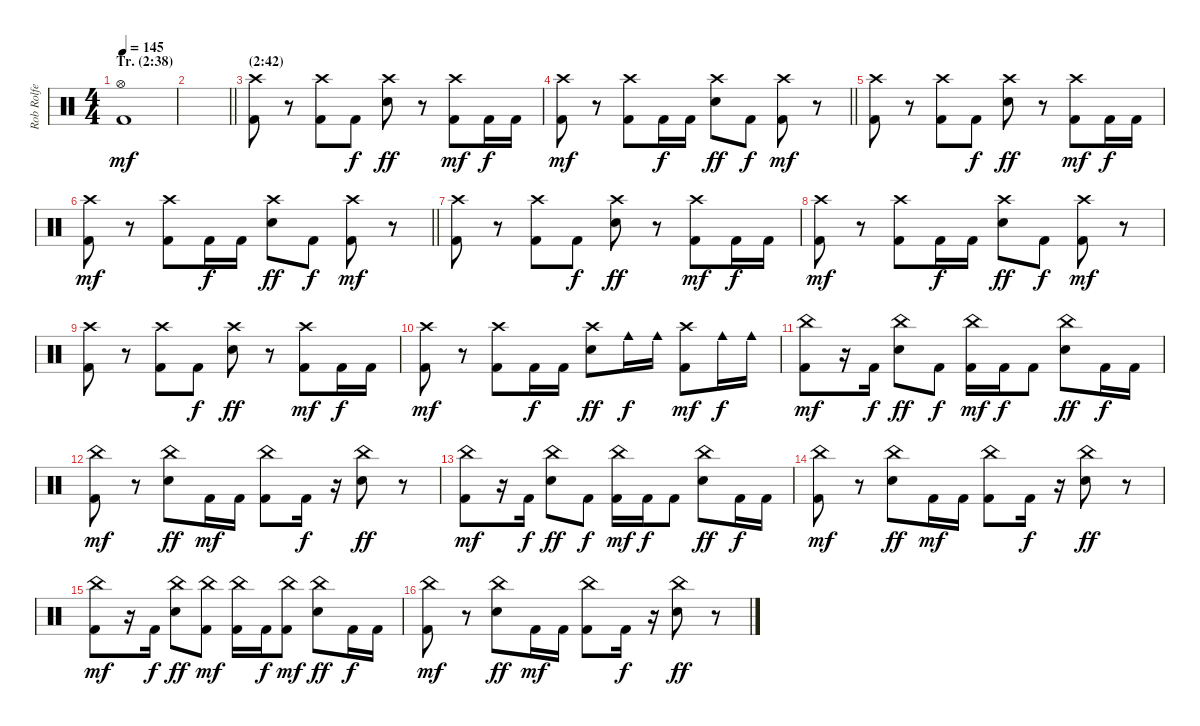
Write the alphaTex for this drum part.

\track ("Rob Rolfe [Drums]" "Rob Rolfe ") {instrument percussion}
\staff {score}
\articulation defaults
\ts (4 4)
\section ("" "Tr. (2:38)")
\tempo 145
\clef neutral
\ks c
("Hi-Hat (open)" "Kick (hit) 2").1{dy mf} |
\barLineRight lightlight
|
\section ("" "(2:42)")
("Crash high (hit)" "Kick (hit) 2").8 r.8 ("Crash high (hit)" "Kick (hit) 2").8 "Kick (hit) 2".8{dy f} ("Crash high (hit)" "Electric Snare (hit)").8{dy ff} r.8 ("Crash high (hit)" "Kick (hit) 2").8{dy mf} "Kick (hit) 2".16{dy f} "Kick (hit) 2".16 |
\barLineRight lightlight
("Crash high (hit)" "Kick (hit) 2").8{dy mf} r.8 ("Crash high (hit)" "Kick (hit) 2").8 "Kick (hit) 2".16{dy f} "Kick (hit) 2".16 ("Crash high (hit)" "Electric Snare (hit)").8{dy ff} "Kick (hit) 2".8{dy f} ("Crash high (hit)" "Kick (hit) 2").8{dy mf} r.8 |
("Crash high (hit)" "Kick (hit) 2").8 r.8 ("Crash high (hit)" "Kick (hit) 2").8 "Kick (hit) 2".8{dy f} ("Crash high (hit)" "Electric Snare (hit)").8{dy ff} r.8 ("Crash high (hit)" "Kick (hit) 2").8{dy mf} "Kick (hit) 2".16{dy f} "Kick (hit) 2".16 |
\barLineRight lightlight
("Crash high (hit)" "Kick (hit) 2").8{dy mf} r.8 ("Crash high (hit)" "Kick (hit) 2").8 "Kick (hit) 2".16{dy f} "Kick (hit) 2".16 ("Crash high (hit)" "Electric Snare (hit)").8{dy ff} "Kick (hit) 2".8{dy f} ("Crash high (hit)" "Kick (hit) 2").8{dy mf} r.8 |
("Crash high (hit)" "Kick (hit) 2").8 r.8 ("Crash high (hit)" "Kick (hit) 2").8 "Kick (hit) 2".8{dy f} ("Crash high (hit)" "Electric Snare (hit)").8{dy ff} r.8 ("Crash high (hit)" "Kick (hit) 2").8{dy mf} "Kick (hit) 2".16{dy f} "Kick (hit) 2".16 |
("Crash high (hit)" "Kick (hit) 2").8{dy mf} r.8 ("Crash high (hit)" "Kick (hit) 2").8 "Kick (hit) 2".16{dy f} "Kick (hit) 2".16 ("Crash high (hit)" "Electric Snare (hit)").8{dy ff} "Kick (hit) 2".8{dy f} ("Crash high (hit)" "Kick (hit) 2").8{dy mf} r.8 |
("Crash high (hit)" "Kick (hit) 2").8 r.8 ("Crash high (hit)" "Kick (hit) 2").8 "Kick (hit) 2".8{dy f} ("Crash high (hit)" "Electric Snare (hit)").8{dy ff} r.8 ("Crash high (hit)" "Kick (hit) 2").8{dy mf} "Kick (hit) 2".16{dy f} "Kick (hit) 2".16 |
("Crash high (hit)" "Kick (hit) 2").8{dy mf} r.8 ("Crash high (hit)" "Kick (hit) 2").8 "Kick (hit) 2".16{dy f} "Kick (hit) 2".16 ("Crash high (hit)" "Electric Snare (hit)").8{dy ff} "Cowbell medium (hit)".16{dy f} "Cowbell medium (hit)".16 ("Crash high (hit)" "Kick (hit) 2").8{dy mf} "Cowbell medium (hit)".16{dy f} "Cowbell medium (hit)".16 |
("China (hit)" "Kick (hit) 2").8{dy mf} r.16 "Kick (hit) 2".16{dy f} ("China (hit)" "Electric Snare (hit)").8{dy ff} "Kick (hit) 2".8{dy f} ("China (hit)" "Kick (hit) 2").16{dy mf} "Kick (hit) 2".16{dy f} "Kick (hit) 2".8 ("China (hit)" "Electric Snare (hit)").8{dy ff} "Kick (hit) 2".16{dy f} "Kick (hit) 2".16 |
("China (hit)" "Kick (hit) 2").8{dy mf} r.8 ("China (hit)" "Electric Snare (hit)").8{dy ff} "Kick (hit) 2".16{dy mf} "Kick (hit) 2".16 ("China (hit)" "Kick (hit) 2").8 "Kick (hit) 2".16{dy f} r.16 ("China (hit)" "Electric Snare (hit)").8{dy ff} r.8 |
("China (hit)" "Kick (hit) 2").8{dy mf} r.16 "Kick (hit) 2".16{dy f} ("China (hit)" "Electric Snare (hit)").8{dy ff} "Kick (hit) 2".8{dy f} ("China (hit)" "Kick (hit) 2").16{dy mf} "Kick (hit) 2".16{dy f} "Kick (hit) 2".8 ("China (hit)" "Electric Snare (hit)").8{dy ff} "Kick (hit) 2".16{dy f} "Kick (hit) 2".16 |
("China (hit)" "Kick (hit) 2").8{dy mf} r.8 ("China (hit)" "Electric Snare (hit)").8{dy ff} "Kick (hit) 2".16{dy mf} "Kick (hit) 2".16 ("China (hit)" "Kick (hit) 2").8 "Kick (hit) 2".16{dy f} r.16 ("China (hit)" "Electric Snare (hit)").8{dy ff} r.8 |
("China (hit)" "Kick (hit) 2").8{dy mf} r.16 "Kick (hit) 2".16{dy f} ("China (hit)" "Electric Snare (hit)").8{dy ff} ("China (hit)" "Kick (hit) 2").8{dy mf} ("China (hit)" "Kick (hit) 2").16 "Kick (hit) 2".16{dy f} ("China (hit)" "Kick (hit) 2").8{dy mf} ("China (hit)" "Electric Snare (hit)").8{dy ff} "Kick (hit) 2".16{dy f} "Kick (hit) 2".16 |
("China (hit)" "Kick (hit) 2").8{dy mf} r.8 ("China (hit)" "Electric Snare (hit)").8{dy ff} "Kick (hit) 2".16{dy mf} "Kick (hit) 2".16 ("China (hit)" "Kick (hit) 2").8 "Kick (hit) 2".16{dy f} r.16 ("China (hit)" "Electric Snare (hit)").8{dy ff} r.8
